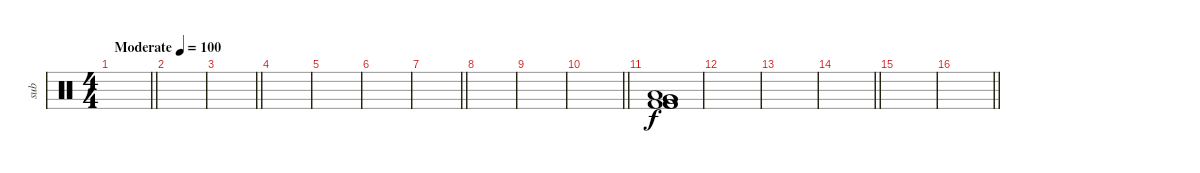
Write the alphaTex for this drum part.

\track ("sub" "sub") {instrument percussion}
\staff {score}
\articulation defaults
\ts (4 4)
\tempo (100 "Moderate")
\clef neutral
\barLineRight lightlight
\ks c
|
\section ("" "")
|
\barLineRight lightlight
|
|
|
|
\barLineRight lightlight
|
|
|
\barLineRight lightlight
|
\section ("" "")
("Low Floor Tom (hit)" "Very Low Tom (hit)" "Very Low Tom (hit)" "Kick (hit) 2" "Kick (hit) 2" "Kick (hit) 2").1 |
|
|
\barLineRight lightlight
|
\section ("" "")
|
\barLineRight lightlight
